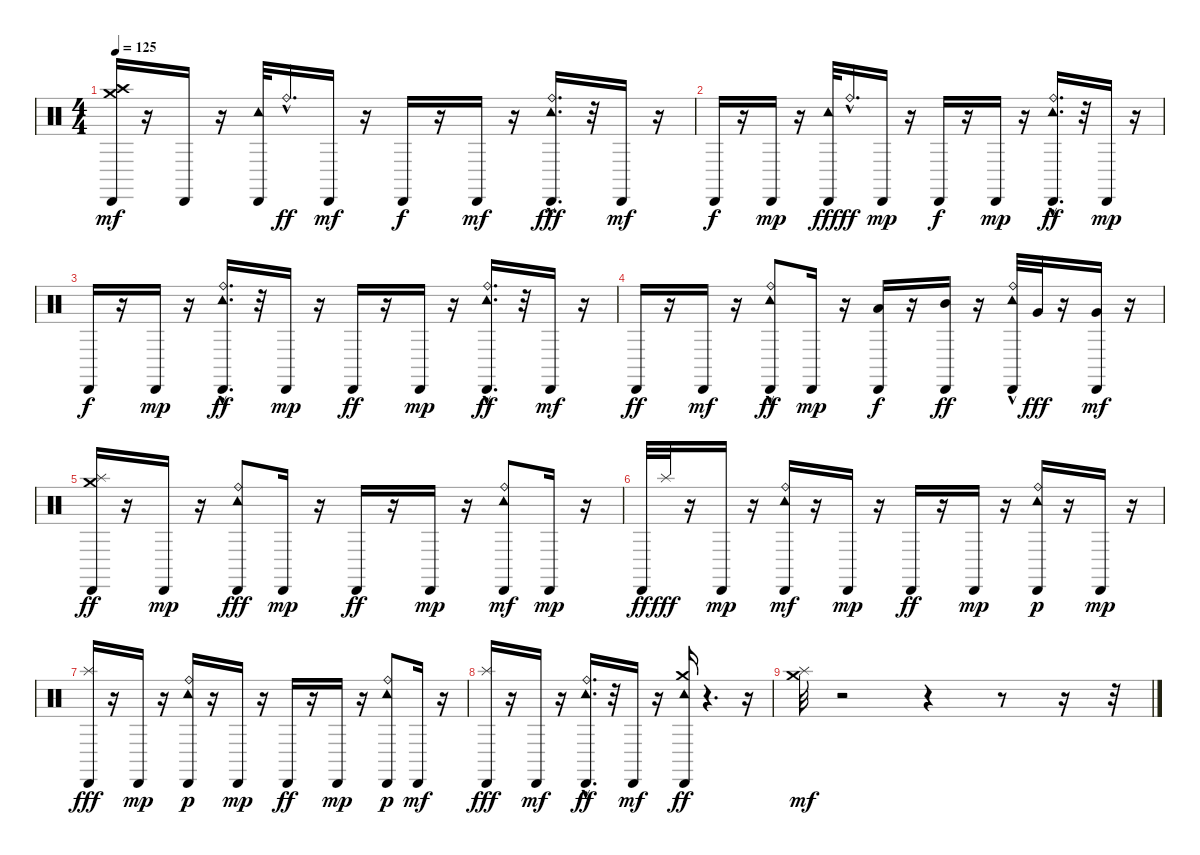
\track "" {instrument percussion}
\staff {score}
\articulation defaults
\ts (4 4)
\tempo 125
\clef neutral
\ks c
("Cabasa (hit)" "Crash high (hit)" "Crash medium (hit)").16{dy mf} r.16 "Cabasa (hit)".16 r.16 ("Tambourine (hit)" "Cabasa (hit)").32 "Ride (bell)"{hac}.16{d dy ff} "Cabasa (hit)".16{dy mf} r.16 "Cabasa (hit)".16{dy f} r.16 "Cabasa (hit)".16{dy mf} r.16 ("Tambourine (hit)" "Cabasa (hit)" "Ride (bell)"{hac}).16{d dy fff} r.32 "Cabasa (hit)".16{dy mf} r.16 |
"Cabasa (hit)".16{dy f} r.16 "Cabasa (hit)".16{dy mp} r.16 ("Cabasa (hit)" "Tambourine (hit)").32{dy fff} "Ride (bell)"{hac}.16{d dy ff} "Cabasa (hit)".16{dy mp} r.16 "Cabasa (hit)".16{dy f} r.16 "Cabasa (hit)".16{dy mp} r.16 ("Cabasa (hit)" "Tambourine (hit)" "Ride (bell)"{hac}).16{d dy ff} r.32 "Cabasa (hit)".16{dy mp} r.16 |
"Cabasa (hit)".16{dy f} r.16 "Cabasa (hit)".16{dy mp volume 14} r.16 ("Cabasa (hit)" "Tambourine (hit)" "Ride (bell)"{hac}).16{d dy ff volume 14} r.32 "Cabasa (hit)".16{dy mp volume 14} r.16 "Cabasa (hit)".16{dy ff volume 13} r.16 "Cabasa (hit)".16{dy mp volume 13} r.16 ("Cabasa (hit)" "Tambourine (hit)" "Ride (bell)"{hac}).16{d dy ff volume 13} r.32 "Cabasa (hit)".16{dy mf volume 12} r.16 |
"Cabasa (hit)".16{dy ff volume 12} r.16 "Cabasa (hit)".16{dy mf volume 12} r.16 ("Cabasa (hit)" "Tambourine (hit)" "Ride (bell)"{hac}).8{dy ff volume 12} "Cabasa (hit)".16{dy mp volume 11} r.16 ("Cabasa (hit)" "Low Tom (hit)").16{dy f volume 11} r.16 ("Cabasa (hit)" "Mid Tom (hit)").16{dy ff volume 11} r.16 ("Cabasa (hit)" "Tambourine (hit)" "Ride (bell)"{hac}).32{volume 10} "Very Low Tom (hit)".32{dy fff} r.16 ("Cabasa (hit)" "Very Low Tom (hit)").16{dy mf volume 10} r.16 |
("Cabasa (hit)" "Splash (hit)" "Crash medium (hit)").16{dy ff volume 10} r.16 "Cabasa (hit)".16{dy mp volume 9} r.16 ("Ride (bell)" "Cabasa (hit)" "Tambourine (hit)").8{dy fff volume 9} "Cabasa (hit)".16{dy mp volume 9} r.16 "Cabasa (hit)".16{dy ff volume 8} r.16 "Cabasa (hit)".16{dy mp volume 8} r.16 ("Cabasa (hit)" "Tambourine (hit)" "Ride (bell)").8{dy mf volume 8} "Cabasa (hit)".16{dy mp volume 8} r.16 |
"Cabasa (hit)".32{dy ff volume 7} "Splash (hit)".32{dy fff volume 7} r.16 "Cabasa (hit)".16{dy mp volume 7} r.16 ("Cabasa (hit)" "Tambourine (hit)" "Ride (bell)").16{dy mf volume 7} r.16 "Cabasa (hit)".16{dy mp volume 6} r.16 "Cabasa (hit)".16{dy ff volume 6} r.16 "Cabasa (hit)".16{dy mp volume 6} r.16 ("Cabasa (hit)" "Tambourine (hit)" "Ride (bell)").16{dy p volume 6} r.16 "Cabasa (hit)".16{dy mp volume 5} r.16 |
("Cabasa (hit)" "Splash (hit)").16{dy fff volume 5} r.16 "Cabasa (hit)".16{dy mp volume 5} r.16 ("Tambourine (hit)" "Cabasa (hit)" "Ride (bell)").16{dy p volume 4} r.16 "Cabasa (hit)".16{dy mp volume 4} r.16 "Cabasa (hit)".16{dy ff volume 4} r.16 "Cabasa (hit)".16{dy mp volume 4} r.16 ("Tambourine (hit)" "Cabasa (hit)" "Ride (bell)").8{dy p volume 3} "Cabasa (hit)".16{dy mf volume 3} r.16 |
("Cabasa (hit)" "Splash (hit)").16{dy fff volume 3} r.16 "Cabasa (hit)".16{dy mf volume 2} r.16 ("Ride (bell)"{hac} "Tambourine (hit)" "Cabasa (hit)").16{d dy ff volume 2} r.32 "Cabasa (hit)".16{dy mf volume 2} r.16 ("Tambourine (hit)" "Crash medium (hit)" "Cabasa (hit)").16{dy ff volume 2} r.4{d} r.16 |
("Crash medium (hit)" "Splash (hit)").32{dy mf volume 0} r.2 r.4 r.8 r.16 r.32
